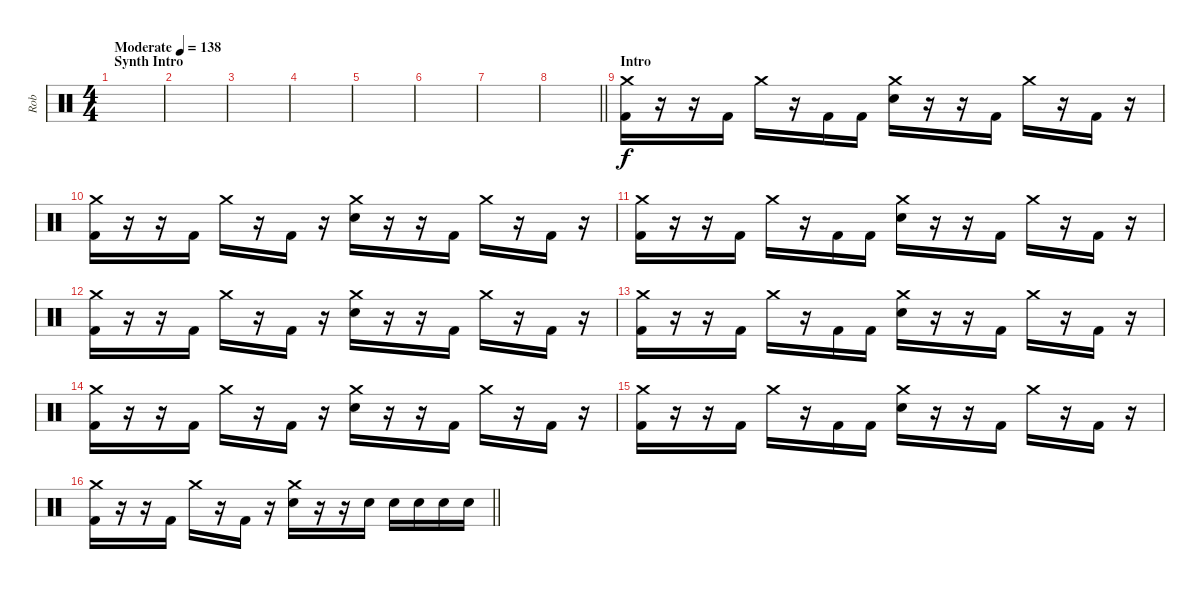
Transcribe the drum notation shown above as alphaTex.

\track ("Rob" "Rob") {instrument percussion}
\staff {score}
\articulation defaults
\ts (4 4)
\section ("" "Synth Intro")
\tempo (138 "Moderate")
\clef neutral
\ks c
|
|
|
|
|
|
|
\barLineRight lightlight
|
\section ("" "Intro")
("Crash medium (hit)" "Kick (hit) 2").16 r.16 r.16 "Kick (hit) 2".16 "Crash medium (hit)".16 r.16 "Kick (hit) 2".16 "Kick (hit) 2".16 ("Crash medium (hit)" "Electric Snare (hit)").16 r.16 r.16 "Kick (hit) 2".16 "Crash medium (hit)".16 r.16 "Kick (hit) 2".16 r.16 |
("Crash medium (hit)" "Kick (hit) 2").16 r.16 r.16 "Kick (hit) 2".16 "Crash medium (hit)".16 r.16 "Kick (hit) 2".16 r.16 ("Crash medium (hit)" "Electric Snare (hit)").16 r.16 r.16 "Kick (hit) 2".16 "Crash medium (hit)".16 r.16 "Kick (hit) 2".16 r.16 |
("Crash medium (hit)" "Kick (hit) 2").16 r.16 r.16 "Kick (hit) 2".16 "Crash medium (hit)".16 r.16 "Kick (hit) 2".16 "Kick (hit) 2".16 ("Crash medium (hit)" "Electric Snare (hit)").16 r.16 r.16 "Kick (hit) 2".16 "Crash medium (hit)".16 r.16 "Kick (hit) 2".16 r.16 |
("Crash medium (hit)" "Kick (hit) 2").16 r.16 r.16 "Kick (hit) 2".16 "Crash medium (hit)".16 r.16 "Kick (hit) 2".16 r.16 ("Crash medium (hit)" "Electric Snare (hit)").16 r.16 r.16 "Kick (hit) 2".16 "Crash medium (hit)".16 r.16 "Kick (hit) 2".16 r.16 |
("Crash medium (hit)" "Kick (hit) 2").16 r.16 r.16 "Kick (hit) 2".16 "Crash medium (hit)".16 r.16 "Kick (hit) 2".16 "Kick (hit) 2".16 ("Crash medium (hit)" "Electric Snare (hit)").16 r.16 r.16 "Kick (hit) 2".16 "Crash medium (hit)".16 r.16 "Kick (hit) 2".16 r.16 |
("Crash medium (hit)" "Kick (hit) 2").16 r.16 r.16 "Kick (hit) 2".16 "Crash medium (hit)".16 r.16 "Kick (hit) 2".16 r.16 ("Crash medium (hit)" "Electric Snare (hit)").16 r.16 r.16 "Kick (hit) 2".16 "Crash medium (hit)".16 r.16 "Kick (hit) 2".16 r.16 |
("Crash medium (hit)" "Kick (hit) 2").16 r.16 r.16 "Kick (hit) 2".16 "Crash medium (hit)".16 r.16 "Kick (hit) 2".16 "Kick (hit) 2".16 ("Crash medium (hit)" "Electric Snare (hit)").16 r.16 r.16 "Kick (hit) 2".16 "Crash medium (hit)".16 r.16 "Kick (hit) 2".16 r.16 |
\barLineRight lightlight
("Crash medium (hit)" "Kick (hit) 2").16 r.16 r.16 "Kick (hit) 2".16 "Crash medium (hit)".16 r.16 "Kick (hit) 2".16 r.16 ("Crash medium (hit)" "Electric Snare (hit)").16 r.16 r.16 "Electric Snare (hit)".16 "Electric Snare (hit)".16 "Electric Snare (hit)".16 "Electric Snare (hit)".16 "Electric Snare (hit)".16
